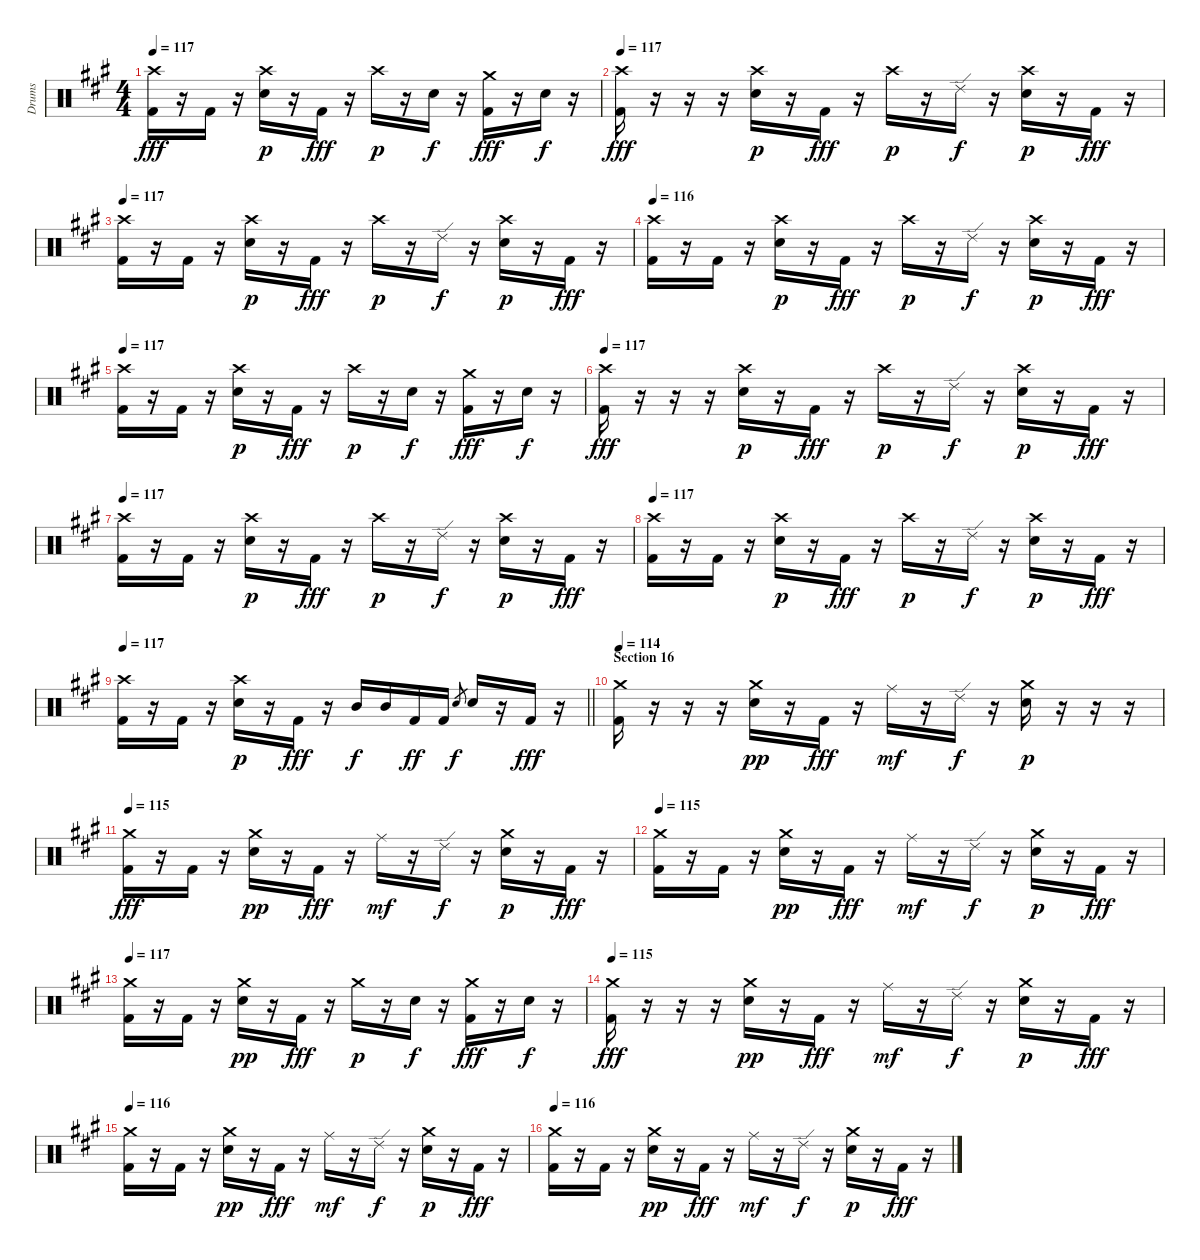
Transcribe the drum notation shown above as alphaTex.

\track ("Drums" "Drums") {instrument percussion}
\staff {score}
\articulation defaults
\ts (4 4)
\tempo 117
\clef neutral
\ks f#minor
("Crash high (hit)" "Kick (hit) 2").16{dy fff} r.16 "Kick (hit) 2".16 r.16 ("Crash high (hit)" "Electric Snare (hit)").16{dy p} r.16 "Kick (hit) 2".16{dy fff} r.16 "Crash high (hit)".16{dy p} r.16 "Electric Snare (hit)".16{dy f} r.16 ("Crash medium (hit)" "Kick (hit) 2").16{dy fff} r.16 "Electric Snare (hit)".16{dy f} r.16 |
\tempo 117
("Crash high (hit)" "Kick (hit) 2").16{dy fff} r.16 r.16 r.16 ("Crash high (hit)" "Electric Snare (hit)").16{dy p} r.16 "Kick (hit) 2".16{dy fff} r.16 "Crash high (hit)".16{dy p} r.16 "Ride (edge) 2".16{dy f} r.16 ("Crash high (hit)" "Electric Snare (hit)").16{dy p} r.16 "Kick (hit) 2".16{dy fff} r.16 |
\tempo 117
("Crash high (hit)" "Kick (hit) 2").16 r.16 "Kick (hit) 2".16 r.16 ("Crash high (hit)" "Electric Snare (hit)").16{dy p} r.16 "Kick (hit) 2".16{dy fff} r.16 "Crash high (hit)".16{dy p} r.16 "Ride (edge) 2".16{dy f} r.16 ("Crash high (hit)" "Electric Snare (hit)").16{dy p} r.16 "Kick (hit) 2".16{dy fff} r.16 |
\tempo 116
("Crash high (hit)" "Kick (hit) 2").16 r.16 "Kick (hit) 2".16 r.16 ("Crash high (hit)" "Electric Snare (hit)").16{dy p} r.16 "Kick (hit) 2".16{dy fff} r.16 "Crash high (hit)".16{dy p} r.16 "Ride (edge) 2".16{dy f} r.16 ("Crash high (hit)" "Electric Snare (hit)").16{dy p} r.16 "Kick (hit) 2".16{dy fff} r.16 |
\tempo 117
("Crash high (hit)" "Kick (hit) 2").16 r.16 "Kick (hit) 2".16 r.16 ("Crash high (hit)" "Electric Snare (hit)").16{dy p} r.16 "Kick (hit) 2".16{dy fff} r.16 "Crash high (hit)".16{dy p} r.16 "Electric Snare (hit)".16{dy f} r.16 ("Crash medium (hit)" "Kick (hit) 2").16{dy fff} r.16 "Electric Snare (hit)".16{dy f} r.16 |
\tempo 117
("Crash high (hit)" "Kick (hit) 2").16{dy fff} r.16 r.16 r.16 ("Crash high (hit)" "Electric Snare (hit)").16{dy p} r.16 "Kick (hit) 2".16{dy fff} r.16 "Crash high (hit)".16{dy p} r.16 "Ride (edge) 2".16{dy f} r.16 ("Crash high (hit)" "Electric Snare (hit)").16{dy p} r.16 "Kick (hit) 2".16{dy fff} r.16 |
\tempo 117
("Crash high (hit)" "Kick (hit) 2").16 r.16 "Kick (hit) 2".16 r.16 ("Crash high (hit)" "Electric Snare (hit)").16{dy p} r.16 "Kick (hit) 2".16{dy fff} r.16 "Crash high (hit)".16{dy p} r.16 "Ride (edge) 2".16{dy f} r.16 ("Crash high (hit)" "Electric Snare (hit)").16{dy p} r.16 "Kick (hit) 2".16{dy fff} r.16 |
\tempo 117
("Crash high (hit)" "Kick (hit) 2").16 r.16 "Kick (hit) 2".16 r.16 ("Crash high (hit)" "Electric Snare (hit)").16{dy p} r.16 "Kick (hit) 2".16{dy fff} r.16 "Crash high (hit)".16{dy p} r.16 "Ride (edge) 2".16{dy f} r.16 ("Crash high (hit)" "Electric Snare (hit)").16{dy p} r.16 "Kick (hit) 2".16{dy fff} r.16 |
\tempo 117
\barLineRight lightlight
("Crash high (hit)" "Kick (hit) 2").16 r.16 "Kick (hit) 2".16 r.16 ("Crash high (hit)" "Electric Snare (hit)").16{dy p} r.16 "Kick (hit) 2".16{dy fff} r.16 "Mid Tom (hit)".16{dy f} "Mid Tom (hit)".16 "Kick (hit) 2".16{dy ff} "Kick (hit) 2".16 "Electric Snare (hit)".8{gr dy f} "Electric Snare (hit)".16 r.16 "Kick (hit) 2".16{dy fff} r.16 |
\section ("" "Section 16")
\tempo 114
("Crash medium (hit)" "Kick (hit) 2").16 r.16 r.16 r.16 ("Crash medium (hit)" "Electric Snare (hit)").16{dy pp} r.16 "Kick (hit) 2".16{dy fff} r.16 "Ride (middle)".16{dy mf} r.16 "Ride (edge) 2".16{dy f} r.16 ("Crash medium (hit)" "Electric Snare (hit)").16{dy p} r.16 r.16 r.16 |
\tempo 115
("Crash medium (hit)" "Kick (hit) 2").16{dy fff} r.16 "Kick (hit) 2".16 r.16 ("Crash medium (hit)" "Electric Snare (hit)").16{dy pp} r.16 "Kick (hit) 2".16{dy fff} r.16 "Ride (middle)".16{dy mf} r.16 "Ride (edge) 2".16{dy f} r.16 ("Crash medium (hit)" "Electric Snare (hit)").16{dy p} r.16 "Kick (hit) 2".16{dy fff} r.16 |
\tempo 115
("Crash medium (hit)" "Kick (hit) 2").16 r.16 "Kick (hit) 2".16 r.16 ("Crash medium (hit)" "Electric Snare (hit)").16{dy pp} r.16 "Kick (hit) 2".16{dy fff} r.16 "Ride (middle)".16{dy mf} r.16 "Ride (edge) 2".16{dy f} r.16 ("Crash medium (hit)" "Electric Snare (hit)").16{dy p} r.16 "Kick (hit) 2".16{dy fff} r.16 |
\tempo 117
("Crash medium (hit)" "Kick (hit) 2").16 r.16 "Kick (hit) 2".16 r.16 ("Crash medium (hit)" "Electric Snare (hit)").16{dy pp} r.16 "Kick (hit) 2".16{dy fff} r.16 "Crash medium (hit)".16{dy p} r.16 "Electric Snare (hit)".16{dy f} r.16 ("Crash medium (hit)" "Kick (hit) 2").16{dy fff} r.16 "Electric Snare (hit)".16{dy f} r.16 |
\tempo 115
("Crash medium (hit)" "Kick (hit) 2").16{dy fff} r.16 r.16 r.16 ("Crash medium (hit)" "Electric Snare (hit)").16{dy pp} r.16 "Kick (hit) 2".16{dy fff} r.16 "Ride (middle)".16{dy mf} r.16 "Ride (edge) 2".16{dy f} r.16 ("Crash medium (hit)" "Electric Snare (hit)").16{dy p} r.16 "Kick (hit) 2".16{dy fff} r.16 |
\tempo 116
("Crash medium (hit)" "Kick (hit) 2").16 r.16 "Kick (hit) 2".16 r.16 ("Crash medium (hit)" "Electric Snare (hit)").16{dy pp} r.16 "Kick (hit) 2".16{dy fff} r.16 "Ride (middle)".16{dy mf} r.16 "Ride (edge) 2".16{dy f} r.16 ("Crash medium (hit)" "Electric Snare (hit)").16{dy p} r.16 "Kick (hit) 2".16{dy fff} r.16 |
\tempo 116
("Crash medium (hit)" "Kick (hit) 2").16 r.16 "Kick (hit) 2".16 r.16 ("Crash medium (hit)" "Electric Snare (hit)").16{dy pp} r.16 "Kick (hit) 2".16{dy fff} r.16 "Ride (middle)".16{dy mf} r.16 "Ride (edge) 2".16{dy f} r.16 ("Crash medium (hit)" "Electric Snare (hit)").16{dy p} r.16 "Kick (hit) 2".16{dy fff} r.16
